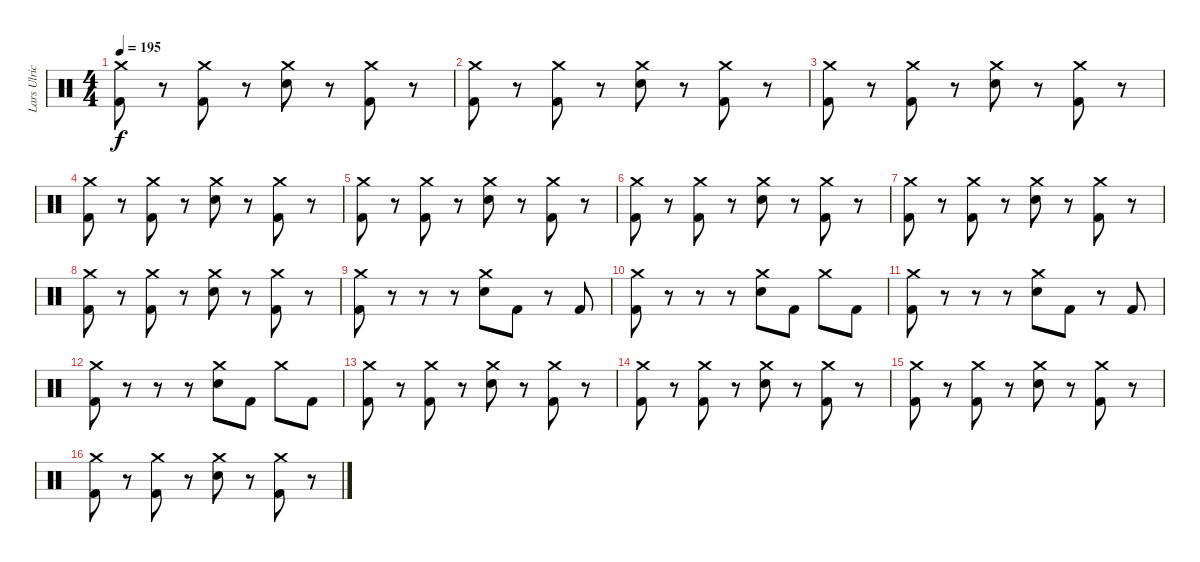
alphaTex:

\track ("Lars Ulrich" "Lars Ulric") {instrument percussion}
\staff {score}
\articulation defaults
\ts (4 4)
\tempo 195
\clef neutral
\ks c
("Crash medium (hit)" "Kick (hit) 2").8{dy f} r.8 ("Crash medium (hit)" "Kick (hit) 2").8 r.8 ("Crash medium (hit)" "Electric Snare (hit)").8 r.8 ("Crash medium (hit)" "Kick (hit) 2").8 r.8 |
("Crash medium (hit)" "Kick (hit) 2").8 r.8 ("Crash medium (hit)" "Kick (hit) 2").8 r.8 ("Crash medium (hit)" "Electric Snare (hit)").8 r.8 ("Crash medium (hit)" "Kick (hit) 2").8 r.8 |
("Crash medium (hit)" "Kick (hit) 2").8 r.8 ("Crash medium (hit)" "Kick (hit) 2").8 r.8 ("Crash medium (hit)" "Electric Snare (hit)").8 r.8 ("Crash medium (hit)" "Kick (hit) 2").8 r.8 |
("Crash medium (hit)" "Kick (hit) 2").8 r.8 ("Crash medium (hit)" "Kick (hit) 2").8 r.8 ("Crash medium (hit)" "Electric Snare (hit)").8 r.8 ("Crash medium (hit)" "Kick (hit) 2").8 r.8 |
("Crash medium (hit)" "Kick (hit) 2").8 r.8 ("Crash medium (hit)" "Kick (hit) 2").8 r.8 ("Crash medium (hit)" "Electric Snare (hit)").8 r.8 ("Crash medium (hit)" "Kick (hit) 2").8 r.8 |
("Crash medium (hit)" "Kick (hit) 2").8 r.8 ("Crash medium (hit)" "Kick (hit) 2").8 r.8 ("Crash medium (hit)" "Electric Snare (hit)").8 r.8 ("Crash medium (hit)" "Kick (hit) 2").8 r.8 |
("Crash medium (hit)" "Kick (hit) 2").8 r.8 ("Crash medium (hit)" "Kick (hit) 2").8 r.8 ("Crash medium (hit)" "Electric Snare (hit)").8 r.8 ("Crash medium (hit)" "Kick (hit) 2").8 r.8 |
("Crash medium (hit)" "Kick (hit) 2").8 r.8 ("Crash medium (hit)" "Kick (hit) 2").8 r.8 ("Crash medium (hit)" "Electric Snare (hit)").8 r.8 ("Crash medium (hit)" "Kick (hit) 2").8 r.8 |
("Crash medium (hit)" "Kick (hit) 2").8 r.8 r.8 r.8 ("Crash medium (hit)" "Electric Snare (hit)").8 "Kick (hit) 2".8 r.8 "Kick (hit) 2".8 |
("Crash medium (hit)" "Kick (hit) 2").8 r.8 r.8 r.8 ("Crash medium (hit)" "Electric Snare (hit)").8 "Kick (hit) 2".8 "Crash medium (hit)".8 "Kick (hit) 2".8 |
("Crash medium (hit)" "Kick (hit) 2").8 r.8 r.8 r.8 ("Crash medium (hit)" "Electric Snare (hit)").8 "Kick (hit) 2".8 r.8 "Kick (hit) 2".8 |
("Crash medium (hit)" "Kick (hit) 2").8 r.8 r.8 r.8 ("Crash medium (hit)" "Electric Snare (hit)").8 "Kick (hit) 2".8 "Crash medium (hit)".8 "Kick (hit) 2".8 |
("Crash medium (hit)" "Kick (hit) 2").8 r.8 ("Crash medium (hit)" "Kick (hit) 2").8 r.8 ("Crash medium (hit)" "Electric Snare (hit)").8 r.8 ("Crash medium (hit)" "Kick (hit) 2").8 r.8 |
("Crash medium (hit)" "Kick (hit) 2").8 r.8 ("Crash medium (hit)" "Kick (hit) 2").8 r.8 ("Crash medium (hit)" "Electric Snare (hit)").8 r.8 ("Crash medium (hit)" "Kick (hit) 2").8 r.8 |
("Crash medium (hit)" "Kick (hit) 2").8 r.8 ("Crash medium (hit)" "Kick (hit) 2").8 r.8 ("Crash medium (hit)" "Electric Snare (hit)").8 r.8 ("Crash medium (hit)" "Kick (hit) 2").8 r.8 |
("Crash medium (hit)" "Kick (hit) 2").8 r.8 ("Crash medium (hit)" "Kick (hit) 2").8 r.8 ("Crash medium (hit)" "Electric Snare (hit)").8 r.8 ("Crash medium (hit)" "Kick (hit) 2").8 r.8
